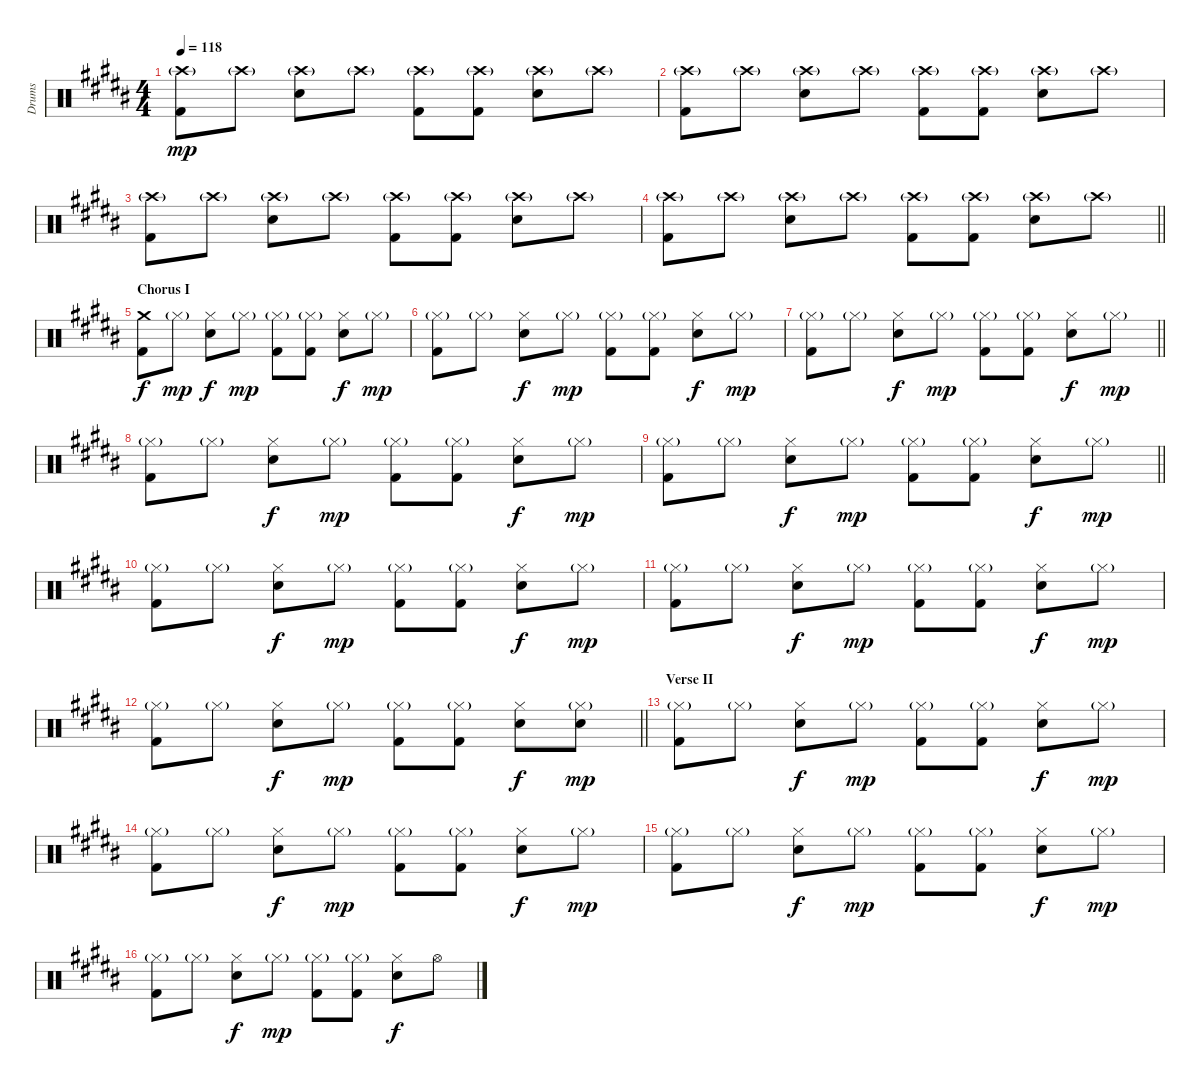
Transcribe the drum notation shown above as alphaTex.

\track ("Drums" "Drums") {instrument percussion}
\staff {score}
\articulation defaults
\ts (4 4)
\tempo 118
\clef neutral
\ks b
("Crash high (hit)"{g} "Kick (hit) 2").8{dy mp} "Crash high (hit)"{g}.8 ("Crash high (hit)"{g} "Snare (hit) 2").8 "Crash high (hit)"{g}.8 ("Crash high (hit)"{g} "Kick (hit) 2").8 ("Crash high (hit)"{g} "Kick (hit) 2").8 ("Crash high (hit)"{g} "Snare (hit) 2").8 "Crash high (hit)"{g}.8 |
("Crash high (hit)"{g} "Kick (hit) 2").8 "Crash high (hit)"{g}.8 ("Crash high (hit)"{g} "Snare (hit) 2").8 "Crash high (hit)"{g}.8 ("Crash high (hit)"{g} "Kick (hit) 2").8 ("Crash high (hit)"{g} "Kick (hit) 2").8 ("Crash high (hit)"{g} "Snare (hit) 2").8 "Crash high (hit)"{g}.8 |
("Crash high (hit)"{g} "Kick (hit) 2").8 "Crash high (hit)"{g}.8 ("Crash high (hit)"{g} "Snare (hit) 2").8 "Crash high (hit)"{g}.8 ("Crash high (hit)"{g} "Kick (hit) 2").8 ("Crash high (hit)"{g} "Kick (hit) 2").8 ("Crash high (hit)"{g} "Snare (hit) 2").8 "Crash high (hit)"{g}.8 |
\barLineRight lightlight
("Crash high (hit)"{g} "Kick (hit) 2").8 "Crash high (hit)"{g}.8 ("Crash high (hit)"{g} "Snare (hit) 2").8 "Crash high (hit)"{g}.8 ("Crash high (hit)"{g} "Kick (hit) 2").8 ("Crash high (hit)"{g} "Kick (hit) 2").8 ("Crash high (hit)"{g} "Snare (hit) 2").8 "Crash high (hit)"{g}.8 |
\section ("" "Chorus I")
("Crash medium (hit)" "Kick (hit) 2").8{dy f} "Hi-Hat (closed)"{g}.8{dy mp} ("Hi-Hat (closed)" "Snare (hit) 2").8{dy f} "Hi-Hat (closed)"{g}.8{dy mp} ("Hi-Hat (closed)"{g} "Kick (hit) 2").8 ("Hi-Hat (closed)"{g} "Kick (hit) 2").8 ("Hi-Hat (closed)" "Snare (hit) 2").8{dy f} "Hi-Hat (closed)"{g}.8{dy mp} |
("Hi-Hat (closed)"{g} "Kick (hit) 2").8 "Hi-Hat (closed)"{g}.8 ("Hi-Hat (closed)" "Snare (hit) 2").8{dy f} "Hi-Hat (closed)"{g}.8{dy mp} ("Hi-Hat (closed)"{g} "Kick (hit) 2").8 ("Hi-Hat (closed)"{g} "Kick (hit) 2").8 ("Hi-Hat (closed)" "Snare (hit) 2").8{dy f} "Hi-Hat (closed)"{g}.8{dy mp} |
\barLineRight lightlight
("Hi-Hat (closed)"{g} "Kick (hit) 2").8 "Hi-Hat (closed)"{g}.8 ("Hi-Hat (closed)" "Snare (hit) 2").8{dy f} "Hi-Hat (closed)"{g}.8{dy mp} ("Hi-Hat (closed)"{g} "Kick (hit) 2").8 ("Hi-Hat (closed)"{g} "Kick (hit) 2").8 ("Hi-Hat (closed)" "Snare (hit) 2").8{dy f} "Hi-Hat (closed)"{g}.8{dy mp} |
("Hi-Hat (closed)"{g} "Kick (hit) 2").8 "Hi-Hat (closed)"{g}.8 ("Hi-Hat (closed)" "Snare (hit) 2").8{dy f} "Hi-Hat (closed)"{g}.8{dy mp} ("Hi-Hat (closed)"{g} "Kick (hit) 2").8 ("Hi-Hat (closed)"{g} "Kick (hit) 2").8 ("Hi-Hat (closed)" "Snare (hit) 2").8{dy f} "Hi-Hat (closed)"{g}.8{dy mp} |
\barLineRight lightlight
("Hi-Hat (closed)"{g} "Kick (hit) 2").8 "Hi-Hat (closed)"{g}.8 ("Hi-Hat (closed)" "Snare (hit) 2").8{dy f} "Hi-Hat (closed)"{g}.8{dy mp} ("Hi-Hat (closed)"{g} "Kick (hit) 2").8 ("Hi-Hat (closed)"{g} "Kick (hit) 2").8 ("Hi-Hat (closed)" "Snare (hit) 2").8{dy f} "Hi-Hat (closed)"{g}.8{dy mp} |
("Hi-Hat (closed)"{g} "Kick (hit) 2").8 "Hi-Hat (closed)"{g}.8 ("Hi-Hat (closed)" "Snare (hit) 2").8{dy f} "Hi-Hat (closed)"{g}.8{dy mp} ("Hi-Hat (closed)"{g} "Kick (hit) 2").8 ("Hi-Hat (closed)"{g} "Kick (hit) 2").8 ("Hi-Hat (closed)" "Snare (hit) 2").8{dy f} "Hi-Hat (closed)"{g}.8{dy mp} |
("Hi-Hat (closed)"{g} "Kick (hit) 2").8 "Hi-Hat (closed)"{g}.8 ("Hi-Hat (closed)" "Snare (hit) 2").8{dy f} "Hi-Hat (closed)"{g}.8{dy mp} ("Hi-Hat (closed)"{g} "Kick (hit) 2").8 ("Hi-Hat (closed)"{g} "Kick (hit) 2").8 ("Hi-Hat (closed)" "Snare (hit) 2").8{dy f} "Hi-Hat (closed)"{g}.8{dy mp} |
\barLineRight lightlight
("Hi-Hat (closed)"{g} "Kick (hit) 2").8 "Hi-Hat (closed)"{g}.8 ("Hi-Hat (closed)" "Snare (hit) 2").8{dy f} "Hi-Hat (closed)"{g}.8{dy mp} ("Hi-Hat (closed)"{g} "Kick (hit) 2").8 ("Hi-Hat (closed)"{g} "Kick (hit) 2").8 ("Hi-Hat (closed)" "Snare (hit) 2").8{dy f} ("Hi-Hat (closed)"{g} "Snare (hit) 2").8{dy mp} |
\section ("" "Verse II")
("Hi-Hat (closed)"{g} "Kick (hit) 2").8 "Hi-Hat (closed)"{g}.8 ("Hi-Hat (closed)" "Snare (hit) 2").8{dy f} "Hi-Hat (closed)"{g}.8{dy mp} ("Hi-Hat (closed)"{g} "Kick (hit) 2").8 ("Hi-Hat (closed)"{g} "Kick (hit) 2").8 ("Hi-Hat (closed)" "Snare (hit) 2").8{dy f} "Hi-Hat (closed)"{g}.8{dy mp} |
("Hi-Hat (closed)"{g} "Kick (hit) 2").8 "Hi-Hat (closed)"{g}.8 ("Hi-Hat (closed)" "Snare (hit) 2").8{dy f} "Hi-Hat (closed)"{g}.8{dy mp} ("Hi-Hat (closed)"{g} "Kick (hit) 2").8 ("Hi-Hat (closed)"{g} "Kick (hit) 2").8 ("Hi-Hat (closed)" "Snare (hit) 2").8{dy f} "Hi-Hat (closed)"{g}.8{dy mp} |
("Hi-Hat (closed)"{g} "Kick (hit) 2").8 "Hi-Hat (closed)"{g}.8 ("Hi-Hat (closed)" "Snare (hit) 2").8{dy f} "Hi-Hat (closed)"{g}.8{dy mp} ("Hi-Hat (closed)"{g} "Kick (hit) 2").8 ("Hi-Hat (closed)"{g} "Kick (hit) 2").8 ("Hi-Hat (closed)" "Snare (hit) 2").8{dy f} "Hi-Hat (closed)"{g}.8{dy mp} |
("Hi-Hat (closed)"{g} "Kick (hit) 2").8 "Hi-Hat (closed)"{g}.8 ("Hi-Hat (closed)" "Snare (hit) 2").8{dy f} "Hi-Hat (closed)"{g}.8{dy mp} ("Hi-Hat (closed)"{g} "Kick (hit) 2").8 ("Hi-Hat (closed)"{g} "Kick (hit) 2").8 ("Hi-Hat (closed)" "Snare (hit) 2").8{dy f} "Hi-Hat (open)".8
